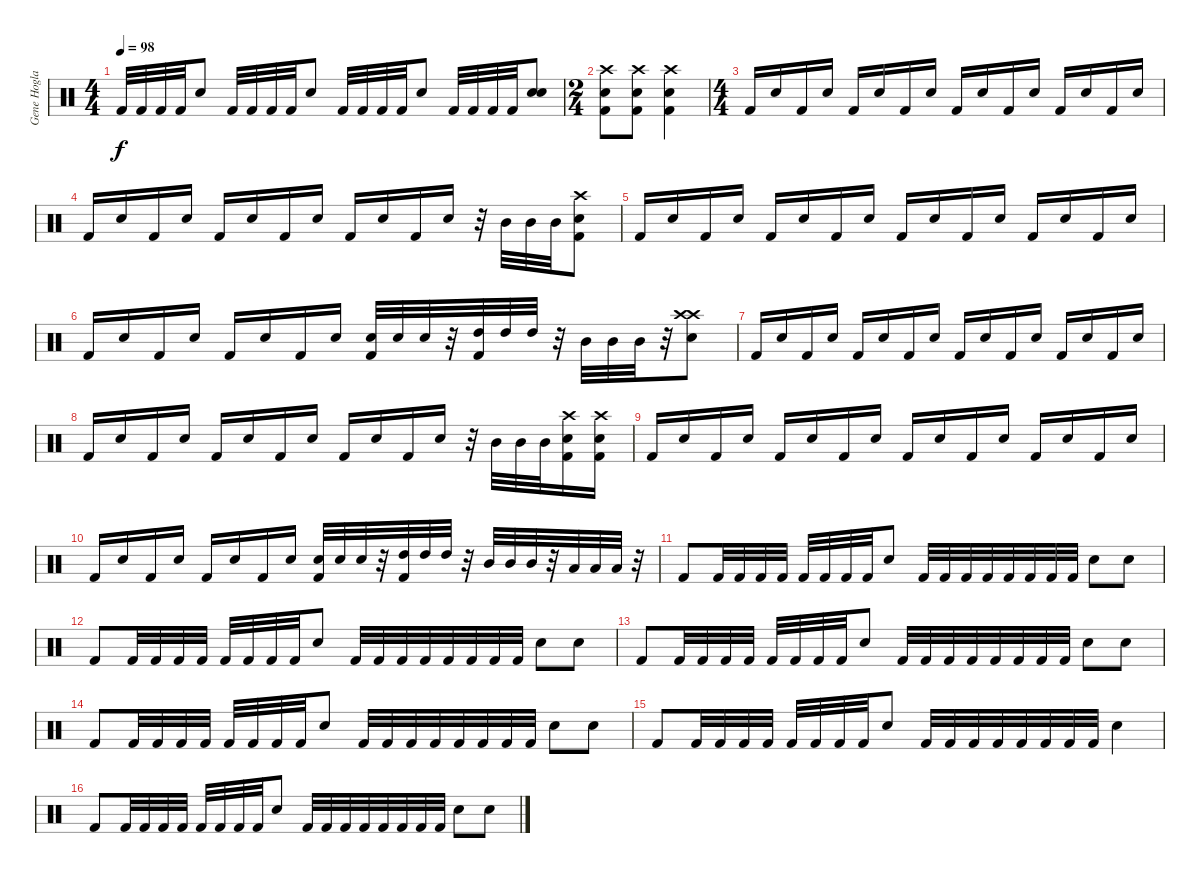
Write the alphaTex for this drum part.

\track ("Gene Hoglan" "Gene Hogla") {instrument percussion}
\staff {score}
\articulation defaults
\ts (4 4)
\tempo 98
\clef neutral
\ks c "Kick (hit) 2".32{dy f} "Kick (hit) 2".32 "Kick (hit) 2".32 "Kick (hit) 2".32 "Electric Snare (hit)".8 "Kick (hit) 2".32 "Kick (hit) 2".32 "Kick (hit) 2".32 "Kick (hit) 2".32 "Electric Snare (hit)".8 "Kick (hit) 2".32 "Kick (hit) 2".32 "Kick (hit) 2".32 "Kick (hit) 2".32 "Electric Snare (hit)".8 "Kick (hit) 2".32 "Kick (hit) 2".32 "Kick (hit) 2".32 "Kick (hit) 2".32
("Electric Snare (hit)" "Snare (hit)").8 |
\ts (2 4)
("Electric Snare (hit)" "Crash high (hit)" "Kick (hit) 2").8 ("Electric Snare (hit)" "Crash high (hit)" "Kick (hit) 2").8 ("Electric Snare (hit)" "Crash high (hit)" "Kick (hit) 2").4 |
\ts (4 4)
"Kick (hit) 2".16 "Electric Snare (hit)".16 "Kick (hit) 2".16 "Electric Snare (hit)".16 "Kick (hit) 2".16 "Electric Snare (hit)".16 "Kick (hit) 2".16 "Electric Snare (hit)".16 "Kick (hit) 2".16 "Electric Snare (hit)".16 "Kick (hit) 2".16 "Electric Snare (hit)".16 "Kick (hit) 2".16 "Electric Snare (hit)".16 "Kick (hit) 2".16 "Electric Snare (hit)".16 |
"Kick (hit) 2".16 "Electric Snare (hit)".16 "Kick (hit) 2".16 "Electric Snare (hit)".16 "Kick (hit) 2".16 "Electric Snare (hit)".16 "Kick (hit) 2".16 "Electric Snare (hit)".16 "Kick (hit) 2".16 "Electric Snare (hit)".16 "Kick (hit) 2".16 "Electric Snare (hit)".16 r.32 "Mid Tom (hit)".32 "Mid Tom (hit)".32 "Mid Tom (hit)".32 ("Kick (hit) 2" "Crash high (hit)" "Electric Snare (hit)").8 |
"Kick (hit) 2".16 "Electric Snare (hit)".16 "Kick (hit) 2".16 "Electric Snare (hit)".16 "Kick (hit) 2".16 "Electric Snare (hit)".16 "Kick (hit) 2".16 "Electric Snare (hit)".16 "Kick (hit) 2".16 "Electric Snare (hit)".16 "Kick (hit) 2".16 "Electric Snare (hit)".16 "Kick (hit) 2".16 "Electric Snare (hit)".16 "Kick (hit) 2".16 "Electric Snare (hit)".16 |
"Kick (hit) 2".16 "Electric Snare (hit)".16 "Kick (hit) 2".16 "Electric Snare (hit)".16 "Kick (hit) 2".16 "Electric Snare (hit)".16 "Kick (hit) 2".16 "Electric Snare (hit)".16 ("Kick (hit) 2" "Electric Snare (hit)").32 "Electric Snare (hit)".32 "Electric Snare (hit)".32 r.32 ("Kick (hit) 2" "High Tom (hit)").32 "High Tom (hit)".32 "High Tom (hit)".32 r.32 "Mid Tom (hit)".32 "Mid Tom (hit)".32 "Mid Tom (hit)".32 r.32 ("Electric Snare (hit)" "Crash high (hit)" "Crash high (hit)").8 |
"Kick (hit) 2".16 "Electric Snare (hit)".16 "Kick (hit) 2".16 "Electric Snare (hit)".16 "Kick (hit) 2".16 "Electric Snare (hit)".16 "Kick (hit) 2".16 "Electric Snare (hit)".16 "Kick (hit) 2".16 "Electric Snare (hit)".16 "Kick (hit) 2".16 "Electric Snare (hit)".16 "Kick (hit) 2".16 "Electric Snare (hit)".16 "Kick (hit) 2".16 "Electric Snare (hit)".16 |
"Kick (hit) 2".16 "Electric Snare (hit)".16 "Kick (hit) 2".16 "Electric Snare (hit)".16 "Kick (hit) 2".16 "Electric Snare (hit)".16 "Kick (hit) 2".16 "Electric Snare (hit)".16 "Kick (hit) 2".16 "Electric Snare (hit)".16 "Kick (hit) 2".16 "Electric Snare (hit)".16 r.32 "Mid Tom (hit)".32 "Mid Tom (hit)".32 "Mid Tom (hit)".32 ("Kick (hit) 2" "Crash high (hit)" "Electric Snare (hit)").16 ("Kick (hit) 2" "Crash high (hit)" "Electric Snare (hit)").16 |
"Kick (hit) 2".16 "Electric Snare (hit)".16 "Kick (hit) 2".16 "Electric Snare (hit)".16 "Kick (hit) 2".16 "Electric Snare (hit)".16 "Kick (hit) 2".16 "Electric Snare (hit)".16 "Kick (hit) 2".16 "Electric Snare (hit)".16 "Kick (hit) 2".16 "Electric Snare (hit)".16 "Kick (hit) 2".16 "Electric Snare (hit)".16 "Kick (hit) 2".16 "Electric Snare (hit)".16 |
"Kick (hit) 2".16 "Electric Snare (hit)".16 "Kick (hit) 2".16 "Electric Snare (hit)".16 "Kick (hit) 2".16 "Electric Snare (hit)".16 "Kick (hit) 2".16 "Electric Snare (hit)".16 ("Kick (hit) 2" "Electric Snare (hit)").32 "Electric Snare (hit)".32 "Electric Snare (hit)".32 r.32 ("Kick (hit) 2" "High Tom (hit)").32 "High Tom (hit)".32 "High Tom (hit)".32 r.32 "Mid Tom (hit)".32 "Mid Tom (hit)".32 "Mid Tom (hit)".32 r.32 "Low Floor Tom (hit)".32 "Low Floor Tom (hit)".32 "Low Floor Tom (hit)".32 r.32 |
"Kick (hit) 2".8 "Kick (hit) 2".32 "Kick (hit) 2".32 "Kick (hit) 2".32 "Kick (hit) 2".32 "Kick (hit) 2".32 "Kick (hit) 2".32 "Kick (hit) 2".32 "Kick (hit) 2".32 "Electric Snare (hit)".8 "Kick (hit) 2".32 "Kick (hit) 2".32 "Kick (hit) 2".32 "Kick (hit) 2".32 "Kick (hit) 2".32 "Kick (hit) 2".32 "Kick (hit) 2".32 "Kick (hit) 2".32 "Electric Snare (hit)".8 "Snare (hit) 2".8 |
"Kick (hit) 2".8 "Kick (hit) 2".32 "Kick (hit) 2".32 "Kick (hit) 2".32 "Kick (hit) 2".32 "Kick (hit) 2".32 "Kick (hit) 2".32 "Kick (hit) 2".32 "Kick (hit) 2".32 "Electric Snare (hit)".8 "Kick (hit) 2".32 "Kick (hit) 2".32 "Kick (hit) 2".32 "Kick (hit) 2".32 "Kick (hit) 2".32 "Kick (hit) 2".32 "Kick (hit) 2".32 "Kick (hit) 2".32 "Electric Snare (hit)".8 "Snare (hit) 2".8 |
"Kick (hit) 2".8 "Kick (hit) 2".32 "Kick (hit) 2".32 "Kick (hit) 2".32 "Kick (hit) 2".32 "Kick (hit) 2".32 "Kick (hit) 2".32 "Kick (hit) 2".32 "Kick (hit) 2".32 "Electric Snare (hit)".8 "Kick (hit) 2".32 "Kick (hit) 2".32 "Kick (hit) 2".32 "Kick (hit) 2".32 "Kick (hit) 2".32 "Kick (hit) 2".32 "Kick (hit) 2".32 "Kick (hit) 2".32 "Electric Snare (hit)".8 "Snare (hit) 2".8 |
"Kick (hit) 2".8 "Kick (hit) 2".32 "Kick (hit) 2".32 "Kick (hit) 2".32 "Kick (hit) 2".32 "Kick (hit) 2".32 "Kick (hit) 2".32 "Kick (hit) 2".32 "Kick (hit) 2".32 "Electric Snare (hit)".8 "Kick (hit) 2".32 "Kick (hit) 2".32 "Kick (hit) 2".32 "Kick (hit) 2".32 "Kick (hit) 2".32 "Kick (hit) 2".32 "Kick (hit) 2".32 "Kick (hit) 2".32 "Electric Snare (hit)".8 "Snare (hit) 2".8 |
"Kick (hit) 2".8 "Kick (hit) 2".32 "Kick (hit) 2".32 "Kick (hit) 2".32 "Kick (hit) 2".32 "Kick (hit) 2".32 "Kick (hit) 2".32 "Kick (hit) 2".32 "Kick (hit) 2".32 "Electric Snare (hit)".8 "Kick (hit) 2".32 "Kick (hit) 2".32 "Kick (hit) 2".32 "Kick (hit) 2".32 "Kick (hit) 2".32 "Kick (hit) 2".32 "Kick (hit) 2".32 "Kick (hit) 2".32 "Electric Snare (hit)".4 |
"Kick (hit) 2".8 "Kick (hit) 2".32 "Kick (hit) 2".32 "Kick (hit) 2".32 "Kick (hit) 2".32 "Kick (hit) 2".32 "Kick (hit) 2".32 "Kick (hit) 2".32 "Kick (hit) 2".32 "Electric Snare (hit)".8 "Kick (hit) 2".32 "Kick (hit) 2".32 "Kick (hit) 2".32 "Kick (hit) 2".32 "Kick (hit) 2".32 "Kick (hit) 2".32 "Kick (hit) 2".32 "Kick (hit) 2".32 "Electric Snare (hit)".8 "Snare (hit) 2".8
